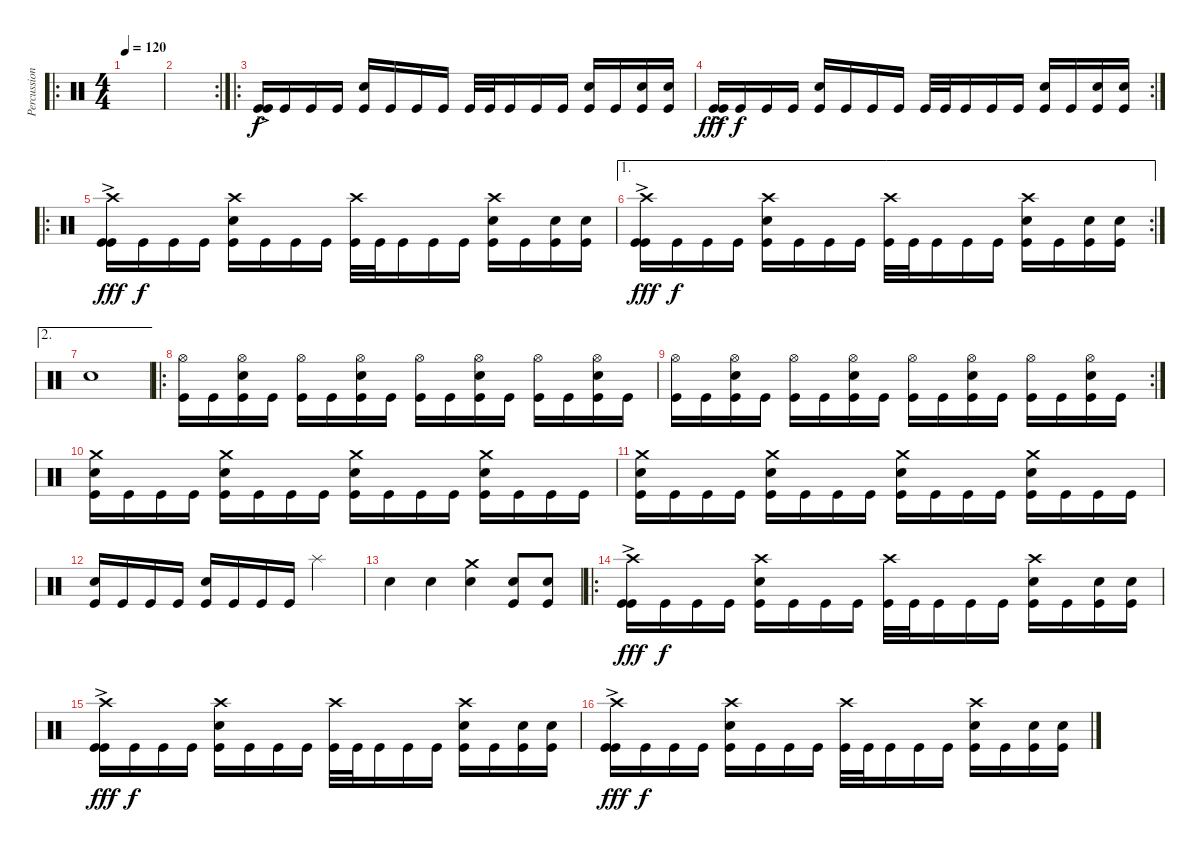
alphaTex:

\track ("Percussion" "Percussion") {instrument percussion}
\staff {score}
\articulation defaults
\ro
\ts (4 4)
\tempo 120
\clef neutral
\ks c
|
\rc 2
|
\ro
("Kick (hit)"{ac} "Kick (hit)").16 "Kick (hit)".16{dy f} "Kick (hit)".16 "Kick (hit)".16 ("Snare (hit) 2" "Kick (hit)").16 "Kick (hit)".16 "Kick (hit)".16 "Kick (hit)".16 "Kick (hit)".32 "Kick (hit)".32 "Kick (hit)".16 "Kick (hit)".16 "Kick (hit)".16 ("Snare (hit) 2" "Kick (hit)").16 "Kick (hit)".16 ("Snare (hit) 2" "Kick (hit)").16 ("Snare (hit) 2" "Kick (hit)").16 |
\rc 2
("Kick (hit)"{ac} "Kick (hit)").16{dy fff} "Kick (hit)".16{dy f} "Kick (hit)".16 "Kick (hit)".16 ("Snare (hit) 2" "Kick (hit)").16 "Kick (hit)".16 "Kick (hit)".16 "Kick (hit)".16 "Kick (hit)".32 "Kick (hit)".32 "Kick (hit)".16 "Kick (hit)".16 "Kick (hit)".16 ("Snare (hit) 2" "Kick (hit)").16 "Kick (hit)".16 ("Snare (hit) 2" "Kick (hit)").16 ("Snare (hit) 2" "Kick (hit)").16 |
\ro
("Crash high (hit)" "Kick (hit)"{ac} "Kick (hit)").16{dy fff} "Kick (hit)".16{dy f} "Kick (hit)".16 "Kick (hit)".16 ("Crash high (hit)" "Snare (hit) 2" "Kick (hit)").16 "Kick (hit)".16 "Kick (hit)".16 "Kick (hit)".16 ("Crash high (hit)" "Kick (hit)").32 "Kick (hit)".32 "Kick (hit)".16 "Kick (hit)".16 "Kick (hit)".16 ("Crash high (hit)" "Snare (hit) 2" "Kick (hit)").16 "Kick (hit)".16 ("Snare (hit) 2" "Kick (hit)").16 ("Snare (hit) 2" "Kick (hit)").16 |
\ae 1
\rc 2
("Crash high (hit)" "Kick (hit)"{ac} "Kick (hit)").16{dy fff} "Kick (hit)".16{dy f} "Kick (hit)".16 "Kick (hit)".16 ("Crash high (hit)" "Snare (hit) 2" "Kick (hit)").16 "Kick (hit)".16 "Kick (hit)".16 "Kick (hit)".16 ("Crash high (hit)" "Kick (hit)").32 "Kick (hit)".32 "Kick (hit)".16 "Kick (hit)".16 "Kick (hit)".16 ("Crash high (hit)" "Snare (hit) 2" "Kick (hit)").16 "Kick (hit)".16 ("Snare (hit) 2" "Kick (hit)").16 ("Snare (hit) 2" "Kick (hit)").16 |
\ae 2 "Snare (hit) 2".1
|
\ro
("Hi-Hat (open)" "Kick (hit)").16 "Kick (hit)".16 ("Hi-Hat (open)" "Snare (hit) 2" "Kick (hit)").16 "Kick (hit)".16 ("Hi-Hat (open)" "Kick (hit)").16 "Kick (hit)".16 ("Hi-Hat (open)" "Snare (hit) 2" "Kick (hit)").16 "Kick (hit)".16 ("Hi-Hat (open)" "Kick (hit)").16 "Kick (hit)".16 ("Hi-Hat (open)" "Snare (hit) 2" "Kick (hit)").16 "Kick (hit)".16 ("Hi-Hat (open)" "Kick (hit)").16 "Kick (hit)".16 ("Hi-Hat (open)" "Snare (hit) 2" "Kick (hit)").16 "Kick (hit)".16 |
\rc 2
("Hi-Hat (open)" "Kick (hit)").16 "Kick (hit)".16 ("Hi-Hat (open)" "Snare (hit) 2" "Kick (hit)").16 "Kick (hit)".16 ("Hi-Hat (open)" "Kick (hit)").16 "Kick (hit)".16 ("Hi-Hat (open)" "Snare (hit) 2" "Kick (hit)").16 "Kick (hit)".16 ("Hi-Hat (open)" "Kick (hit)").16 "Kick (hit)".16 ("Hi-Hat (open)" "Snare (hit) 2" "Kick (hit)").16 "Kick (hit)".16 ("Hi-Hat (open)" "Kick (hit)").16 "Kick (hit)".16 ("Hi-Hat (open)" "Snare (hit) 2" "Kick (hit)").16 "Kick (hit)".16 |
("Crash medium (hit)" "Snare (hit) 2" "Kick (hit)").16 "Kick (hit)".16 "Kick (hit)".16 "Kick (hit)".16 ("Crash medium (hit)" "Snare (hit) 2" "Kick (hit)").16 "Kick (hit)".16 "Kick (hit)".16 "Kick (hit)".16 ("Crash medium (hit)" "Snare (hit) 2" "Kick (hit)").16 "Kick (hit)".16 "Kick (hit)".16 "Kick (hit)".16 ("Crash medium (hit)" "Snare (hit) 2" "Kick (hit)").16 "Kick (hit)".16 "Kick (hit)".16 "Kick (hit)".16 |
("Crash medium (hit)" "Snare (hit) 2" "Kick (hit)").16 "Kick (hit)".16 "Kick (hit)".16 "Kick (hit)".16 ("Crash medium (hit)" "Snare (hit) 2" "Kick (hit)").16 "Kick (hit)".16 "Kick (hit)".16 "Kick (hit)".16 ("Crash medium (hit)" "Snare (hit) 2" "Kick (hit)").16 "Kick (hit)".16 "Kick (hit)".16 "Kick (hit)".16 ("Crash medium (hit)" "Snare (hit) 2" "Kick (hit)").16 "Kick (hit)".16 "Kick (hit)".16 "Kick (hit)".16 |
("Snare (hit) 2" "Kick (hit)").16 "Kick (hit)".16 "Kick (hit)".16 "Kick (hit)".16 ("Snare (hit) 2" "Kick (hit)").16 "Kick (hit)".16 "Kick (hit)".16 "Kick (hit)".16 "Splash (hit)".2 |
"Snare (hit) 2".4 "Snare (hit) 2".4 ("Crash medium (hit)" "Snare (hit) 2").4 ("Snare (hit) 2" "Kick (hit)").8 ("Snare (hit) 2" "Kick (hit)").8 |
\ro
("Crash high (hit)" "Kick (hit)"{ac} "Kick (hit)").16{dy fff} "Kick (hit)".16{dy f} "Kick (hit)".16 "Kick (hit)".16 ("Crash high (hit)" "Snare (hit) 2" "Kick (hit)").16 "Kick (hit)".16 "Kick (hit)".16 "Kick (hit)".16 ("Crash high (hit)" "Kick (hit)").32 "Kick (hit)".32 "Kick (hit)".16 "Kick (hit)".16 "Kick (hit)".16 ("Crash high (hit)" "Snare (hit) 2" "Kick (hit)").16 "Kick (hit)".16 ("Snare (hit) 2" "Kick (hit)").16 ("Snare (hit) 2" "Kick (hit)").16 |
("Crash high (hit)" "Kick (hit)"{ac} "Kick (hit)").16{dy fff} "Kick (hit)".16{dy f} "Kick (hit)".16 "Kick (hit)".16 ("Crash high (hit)" "Snare (hit) 2" "Kick (hit)").16 "Kick (hit)".16 "Kick (hit)".16 "Kick (hit)".16 ("Crash high (hit)" "Kick (hit)").32 "Kick (hit)".32 "Kick (hit)".16 "Kick (hit)".16 "Kick (hit)".16 ("Crash high (hit)" "Snare (hit) 2" "Kick (hit)").16 "Kick (hit)".16 ("Snare (hit) 2" "Kick (hit)").16 ("Snare (hit) 2" "Kick (hit)").16 |
("Crash high (hit)" "Kick (hit)"{ac} "Kick (hit)").16{dy fff} "Kick (hit)".16{dy f} "Kick (hit)".16 "Kick (hit)".16 ("Crash high (hit)" "Snare (hit) 2" "Kick (hit)").16 "Kick (hit)".16 "Kick (hit)".16 "Kick (hit)".16 ("Crash high (hit)" "Kick (hit)").32 "Kick (hit)".32 "Kick (hit)".16 "Kick (hit)".16 "Kick (hit)".16 ("Crash high (hit)" "Snare (hit) 2" "Kick (hit)").16 "Kick (hit)".16 ("Snare (hit) 2" "Kick (hit)").16 ("Snare (hit) 2" "Kick (hit)").16
